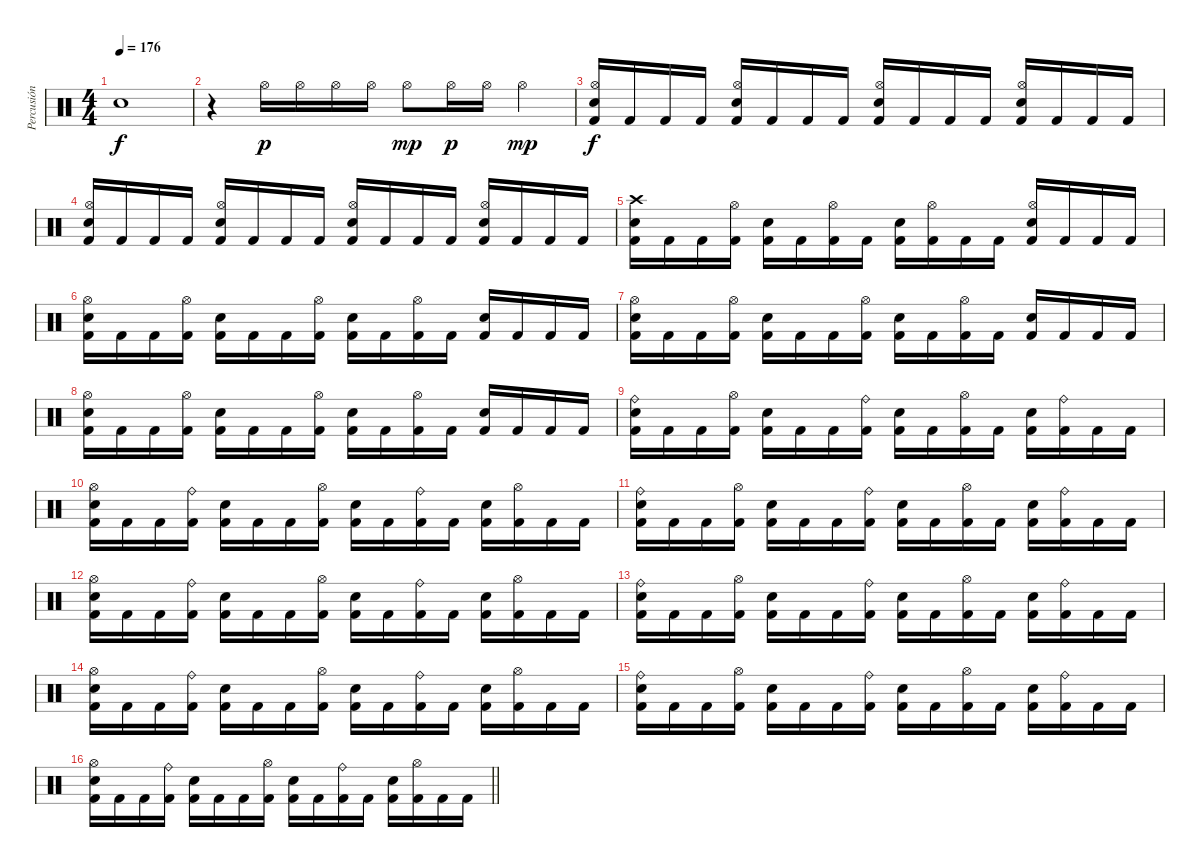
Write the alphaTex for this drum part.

\track ("Percusión" "Percusión") {instrument percussion}
\staff {score}
\articulation defaults
\ts (4 4)
\tempo 176
\clef neutral
\ks c "Electric Snare (hit)".1{dy f}
|
r.4 "Hi-Hat (open)".16{dy p} "Hi-Hat (open)".16 "Hi-Hat (open)".16 "Hi-Hat (open)".16 "Hi-Hat (open)".8{dy mp} "Hi-Hat (open)".16{dy p} "Hi-Hat (open)".16 "Hi-Hat (open)".4{dy mp} |
("Hi-Hat (open)" "Electric Snare (hit)" "Kick (hit) 2").16{dy f} "Kick (hit) 2".16 "Kick (hit) 2".16 "Kick (hit) 2".16 ("Hi-Hat (open)" "Electric Snare (hit)" "Kick (hit) 2").16 "Kick (hit) 2".16 "Kick (hit) 2".16 "Kick (hit) 2".16 ("Hi-Hat (open)" "Electric Snare (hit)" "Kick (hit) 2").16 "Kick (hit) 2".16 "Kick (hit) 2".16 "Kick (hit) 2".16 ("Hi-Hat (open)" "Electric Snare (hit)" "Kick (hit) 2").16 "Kick (hit) 2".16 "Kick (hit) 2".16 "Kick (hit) 2".16 |
("Hi-Hat (open)" "Electric Snare (hit)" "Kick (hit) 2").16 "Kick (hit) 2".16 "Kick (hit) 2".16 "Kick (hit) 2".16 ("Hi-Hat (open)" "Electric Snare (hit)" "Kick (hit) 2").16 "Kick (hit) 2".16 "Kick (hit) 2".16 "Kick (hit) 2".16 ("Hi-Hat (open)" "Electric Snare (hit)" "Kick (hit) 2").16 "Kick (hit) 2".16 "Kick (hit) 2".16 "Kick (hit) 2".16 ("Hi-Hat (open)" "Electric Snare (hit)" "Kick (hit) 2").16 "Kick (hit) 2".16 "Kick (hit) 2".16 "Kick (hit) 2".16 |
("Electric Snare (hit)" "Kick (hit) 2" "Crash high (hit)").16 "Kick (hit) 2".16 "Kick (hit) 2".16 ("Hi-Hat (open)" "Kick (hit) 2").16 ("Electric Snare (hit)" "Kick (hit) 2").16 "Kick (hit) 2".16 ("Hi-Hat (open)" "Kick (hit) 2").16 "Kick (hit) 2".16 ("Electric Snare (hit)" "Kick (hit) 2").16 ("Hi-Hat (open)" "Kick (hit) 2").16 "Kick (hit) 2".16 "Kick (hit) 2".16 ("Hi-Hat (open)" "Electric Snare (hit)" "Kick (hit) 2").16 "Kick (hit) 2".16 "Kick (hit) 2".16 "Kick (hit) 2".16 |
("Hi-Hat (open)" "Electric Snare (hit)" "Kick (hit) 2").16 "Kick (hit) 2".16 "Kick (hit) 2".16 ("Hi-Hat (open)" "Kick (hit) 2").16 ("Electric Snare (hit)" "Kick (hit) 2").16 "Kick (hit) 2".16 "Kick (hit) 2".16 ("Hi-Hat (open)" "Kick (hit) 2").16 ("Electric Snare (hit)" "Kick (hit) 2").16 "Kick (hit) 2".16 ("Hi-Hat (open)" "Kick (hit) 2").16 "Kick (hit) 2".16 ("Electric Snare (hit)" "Kick (hit) 2").16 "Kick (hit) 2".16 "Kick (hit) 2".16 "Kick (hit) 2".16 |
("Hi-Hat (open)" "Electric Snare (hit)" "Kick (hit) 2").16 "Kick (hit) 2".16 "Kick (hit) 2".16 ("Hi-Hat (open)" "Kick (hit) 2").16 ("Electric Snare (hit)" "Kick (hit) 2").16 "Kick (hit) 2".16 "Kick (hit) 2".16 ("Hi-Hat (open)" "Kick (hit) 2").16 ("Electric Snare (hit)" "Kick (hit) 2").16 "Kick (hit) 2".16 ("Hi-Hat (open)" "Kick (hit) 2").16 "Kick (hit) 2".16 ("Electric Snare (hit)" "Kick (hit) 2").16 "Kick (hit) 2".16 "Kick (hit) 2".16 "Kick (hit) 2".16 |
("Hi-Hat (open)" "Electric Snare (hit)" "Kick (hit) 2").16 "Kick (hit) 2".16 "Kick (hit) 2".16 ("Hi-Hat (open)" "Kick (hit) 2").16 ("Electric Snare (hit)" "Kick (hit) 2").16 "Kick (hit) 2".16 "Kick (hit) 2".16 ("Hi-Hat (open)" "Kick (hit) 2").16 ("Electric Snare (hit)" "Kick (hit) 2").16 "Kick (hit) 2".16 ("Hi-Hat (open)" "Kick (hit) 2").16 "Kick (hit) 2".16 ("Electric Snare (hit)" "Kick (hit) 2").16 "Kick (hit) 2".16 "Kick (hit) 2".16 "Kick (hit) 2".16 |
("Ride (bell)" "Electric Snare (hit)" "Kick (hit) 2").16 "Kick (hit) 2".16 "Kick (hit) 2".16 ("Hi-Hat (open)" "Kick (hit) 2").16 ("Electric Snare (hit)" "Kick (hit) 2").16 "Kick (hit) 2".16 "Kick (hit) 2".16 ("Ride (bell)" "Kick (hit) 2").16 ("Electric Snare (hit)" "Kick (hit) 2").16 "Kick (hit) 2".16 ("Hi-Hat (open)" "Kick (hit) 2").16 "Kick (hit) 2".16 ("Electric Snare (hit)" "Kick (hit) 2").16 ("Ride (bell)" "Kick (hit) 2").16 "Kick (hit) 2".16 "Kick (hit) 2".16 |
("Hi-Hat (open)" "Electric Snare (hit)" "Kick (hit) 2").16 "Kick (hit) 2".16 "Kick (hit) 2".16 ("Ride (bell)" "Kick (hit) 2").16 ("Electric Snare (hit)" "Kick (hit) 2").16 "Kick (hit) 2".16 "Kick (hit) 2".16 ("Hi-Hat (open)" "Kick (hit) 2").16 ("Electric Snare (hit)" "Kick (hit) 2").16 "Kick (hit) 2".16 ("Ride (bell)" "Kick (hit) 2").16 "Kick (hit) 2".16 ("Electric Snare (hit)" "Kick (hit) 2").16 ("Hi-Hat (open)" "Kick (hit) 2").16 "Kick (hit) 2".16 "Kick (hit) 2".16 |
("Ride (bell)" "Electric Snare (hit)" "Kick (hit) 2").16 "Kick (hit) 2".16 "Kick (hit) 2".16 ("Hi-Hat (open)" "Kick (hit) 2").16 ("Electric Snare (hit)" "Kick (hit) 2").16 "Kick (hit) 2".16 "Kick (hit) 2".16 ("Ride (bell)" "Kick (hit) 2").16 ("Electric Snare (hit)" "Kick (hit) 2").16 "Kick (hit) 2".16 ("Hi-Hat (open)" "Kick (hit) 2").16 "Kick (hit) 2".16 ("Electric Snare (hit)" "Kick (hit) 2").16 ("Ride (bell)" "Kick (hit) 2").16 "Kick (hit) 2".16 "Kick (hit) 2".16 |
("Hi-Hat (open)" "Electric Snare (hit)" "Kick (hit) 2").16 "Kick (hit) 2".16 "Kick (hit) 2".16 ("Ride (bell)" "Kick (hit) 2").16 ("Electric Snare (hit)" "Kick (hit) 2").16 "Kick (hit) 2".16 "Kick (hit) 2".16 ("Hi-Hat (open)" "Kick (hit) 2").16 ("Electric Snare (hit)" "Kick (hit) 2").16 "Kick (hit) 2".16 ("Ride (bell)" "Kick (hit) 2").16 "Kick (hit) 2".16 ("Electric Snare (hit)" "Kick (hit) 2").16 ("Hi-Hat (open)" "Kick (hit) 2").16 "Kick (hit) 2".16 "Kick (hit) 2".16 |
("Ride (bell)" "Electric Snare (hit)" "Kick (hit) 2").16 "Kick (hit) 2".16 "Kick (hit) 2".16 ("Hi-Hat (open)" "Kick (hit) 2").16 ("Electric Snare (hit)" "Kick (hit) 2").16 "Kick (hit) 2".16 "Kick (hit) 2".16 ("Ride (bell)" "Kick (hit) 2").16 ("Electric Snare (hit)" "Kick (hit) 2").16 "Kick (hit) 2".16 ("Hi-Hat (open)" "Kick (hit) 2").16 "Kick (hit) 2".16 ("Electric Snare (hit)" "Kick (hit) 2").16 ("Ride (bell)" "Kick (hit) 2").16 "Kick (hit) 2".16 "Kick (hit) 2".16 |
("Hi-Hat (open)" "Electric Snare (hit)" "Kick (hit) 2").16 "Kick (hit) 2".16 "Kick (hit) 2".16 ("Ride (bell)" "Kick (hit) 2").16 ("Electric Snare (hit)" "Kick (hit) 2").16 "Kick (hit) 2".16 "Kick (hit) 2".16 ("Hi-Hat (open)" "Kick (hit) 2").16 ("Electric Snare (hit)" "Kick (hit) 2").16 "Kick (hit) 2".16 ("Ride (bell)" "Kick (hit) 2").16 "Kick (hit) 2".16 ("Electric Snare (hit)" "Kick (hit) 2").16 ("Hi-Hat (open)" "Kick (hit) 2").16 "Kick (hit) 2".16 "Kick (hit) 2".16 |
("Ride (bell)" "Electric Snare (hit)" "Kick (hit) 2").16 "Kick (hit) 2".16 "Kick (hit) 2".16 ("Hi-Hat (open)" "Kick (hit) 2").16 ("Electric Snare (hit)" "Kick (hit) 2").16 "Kick (hit) 2".16 "Kick (hit) 2".16 ("Ride (bell)" "Kick (hit) 2").16 ("Electric Snare (hit)" "Kick (hit) 2").16 "Kick (hit) 2".16 ("Hi-Hat (open)" "Kick (hit) 2").16 "Kick (hit) 2".16 ("Electric Snare (hit)" "Kick (hit) 2").16 ("Ride (bell)" "Kick (hit) 2").16 "Kick (hit) 2".16 "Kick (hit) 2".16 |
\barLineRight lightlight
("Hi-Hat (open)" "Electric Snare (hit)" "Kick (hit) 2").16 "Kick (hit) 2".16 "Kick (hit) 2".16 ("Ride (bell)" "Kick (hit) 2").16 ("Electric Snare (hit)" "Kick (hit) 2").16 "Kick (hit) 2".16 "Kick (hit) 2".16 ("Hi-Hat (open)" "Kick (hit) 2").16 ("Electric Snare (hit)" "Kick (hit) 2").16 "Kick (hit) 2".16 ("Ride (bell)" "Kick (hit) 2").16 "Kick (hit) 2".16 ("Electric Snare (hit)" "Kick (hit) 2").16 ("Hi-Hat (open)" "Kick (hit) 2").16 "Kick (hit) 2".16 "Kick (hit) 2".16
